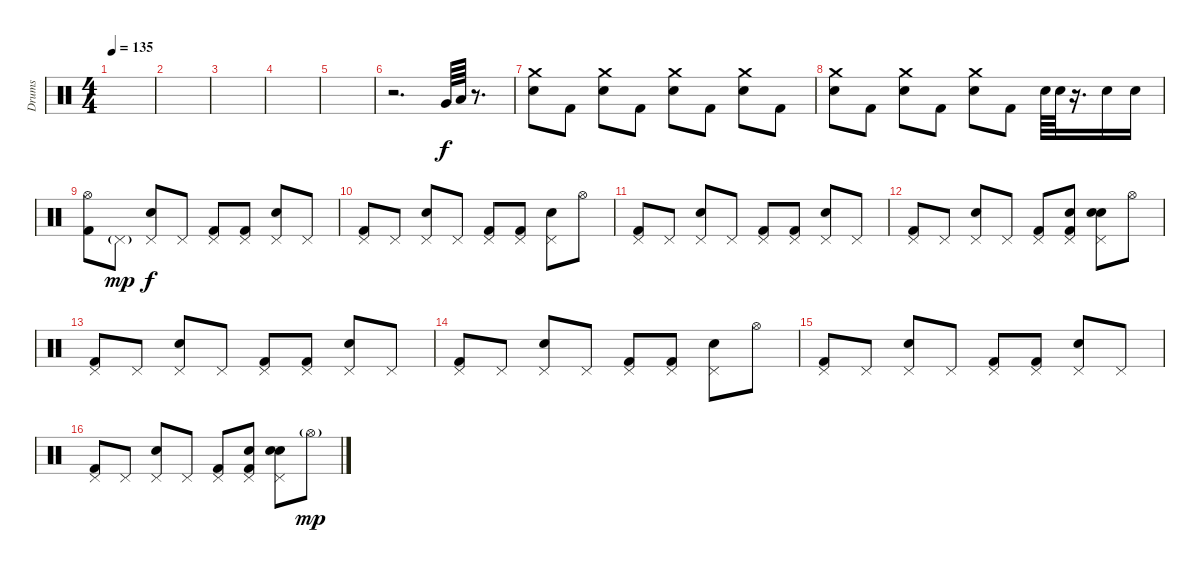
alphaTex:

\track ("Drums" "Drums") {solo instrument percussion bank 34}
\staff {score}
\articulation defaults
\ts (4 4)
\tempo 135
\clef neutral
\ks c
|
|
|
|
|
r.2{d} "Very Low Tom (hit)".64 "Low Floor Tom (hit)".64 r.8{d} |
("Crash medium (hit)" "Electric Snare (hit)").8 "Kick (hit) 2".8 ("Crash medium (hit)" "Electric Snare (hit)").8 "Kick (hit) 2".8 ("Crash medium (hit)" "Electric Snare (hit)").8 "Kick (hit) 2".8 ("Crash medium (hit)" "Electric Snare (hit)").8 "Kick (hit) 2".8 |
("Crash medium (hit)" "Electric Snare (hit)").8 "Kick (hit) 2".8 ("Crash medium (hit)" "Electric Snare (hit)").8 "Kick (hit) 2".8 ("Crash medium (hit)" "Electric Snare (hit)").8 "Kick (hit) 2".8 "Electric Snare (hit)".64 "Electric Snare (hit)".64 r.16{d} "Electric Snare (hit)".16 "Electric Snare (hit)".16 |
("Hi-Hat (open)" "Kick (hit) 2").8 "Pedal Hi-Hat (hit)"{g}.8{dy mp} ("Pedal Hi-Hat (hit)" "Electric Snare (hit)").8{dy f} "Pedal Hi-Hat (hit)".8 ("Pedal Hi-Hat (hit)" "Kick (hit) 2").8 ("Pedal Hi-Hat (hit)" "Kick (hit) 2").8 ("Pedal Hi-Hat (hit)" "Electric Snare (hit)").8 "Pedal Hi-Hat (hit)".8 |
("Pedal Hi-Hat (hit)" "Kick (hit) 2").8 "Pedal Hi-Hat (hit)".8 ("Pedal Hi-Hat (hit)" "Electric Snare (hit)").8 "Pedal Hi-Hat (hit)".8 ("Pedal Hi-Hat (hit)" "Kick (hit) 2").8 ("Pedal Hi-Hat (hit)" "Kick (hit) 2").8 ("Pedal Hi-Hat (hit)" "Electric Snare (hit)").8 "Hi-Hat (open)".8 |
("Pedal Hi-Hat (hit)" "Kick (hit) 2").8 "Pedal Hi-Hat (hit)".8 ("Pedal Hi-Hat (hit)" "Electric Snare (hit)").8 "Pedal Hi-Hat (hit)".8 ("Pedal Hi-Hat (hit)" "Kick (hit) 2").8 ("Pedal Hi-Hat (hit)" "Kick (hit) 2").8 ("Pedal Hi-Hat (hit)" "Electric Snare (hit)").8 "Pedal Hi-Hat (hit)".8 |
("Pedal Hi-Hat (hit)" "Kick (hit) 2").8 "Pedal Hi-Hat (hit)".8 ("Pedal Hi-Hat (hit)" "Electric Snare (hit)").8 "Pedal Hi-Hat (hit)".8 ("Pedal Hi-Hat (hit)" "Kick (hit) 2").8 ("Hand Clap (hit)" "Pedal Hi-Hat (hit)" "Kick (hit) 2").8 ("Hand Clap (hit)" "Pedal Hi-Hat (hit)" "Electric Snare (hit)").8 "Hi-Hat (open)".8 |
("Pedal Hi-Hat (hit)" "Kick (hit) 2").8 "Pedal Hi-Hat (hit)".8 ("Pedal Hi-Hat (hit)" "Electric Snare (hit)").8 "Pedal Hi-Hat (hit)".8 ("Pedal Hi-Hat (hit)" "Kick (hit) 2").8 ("Pedal Hi-Hat (hit)" "Kick (hit) 2").8 ("Pedal Hi-Hat (hit)" "Electric Snare (hit)").8 "Pedal Hi-Hat (hit)".8 |
("Pedal Hi-Hat (hit)" "Kick (hit) 2").8 "Pedal Hi-Hat (hit)".8 ("Pedal Hi-Hat (hit)" "Electric Snare (hit)").8 "Pedal Hi-Hat (hit)".8 ("Pedal Hi-Hat (hit)" "Kick (hit) 2").8 ("Pedal Hi-Hat (hit)" "Kick (hit) 2").8 ("Pedal Hi-Hat (hit)" "Electric Snare (hit)").8 "Hi-Hat (open)".8 |
("Pedal Hi-Hat (hit)" "Kick (hit) 2").8 "Pedal Hi-Hat (hit)".8 ("Pedal Hi-Hat (hit)" "Electric Snare (hit)").8 "Pedal Hi-Hat (hit)".8 ("Pedal Hi-Hat (hit)" "Kick (hit) 2").8 ("Pedal Hi-Hat (hit)" "Kick (hit) 2").8 ("Pedal Hi-Hat (hit)" "Electric Snare (hit)").8 "Pedal Hi-Hat (hit)".8 |
("Pedal Hi-Hat (hit)" "Kick (hit) 2").8 "Pedal Hi-Hat (hit)".8 ("Pedal Hi-Hat (hit)" "Electric Snare (hit)").8 "Pedal Hi-Hat (hit)".8 ("Pedal Hi-Hat (hit)" "Kick (hit) 2").8 ("Hand Clap (hit)" "Pedal Hi-Hat (hit)" "Kick (hit) 2").8 ("Hand Clap (hit)" "Pedal Hi-Hat (hit)" "Electric Snare (hit)").8 "Hi-Hat (open)"{g}.8{dy mp}
